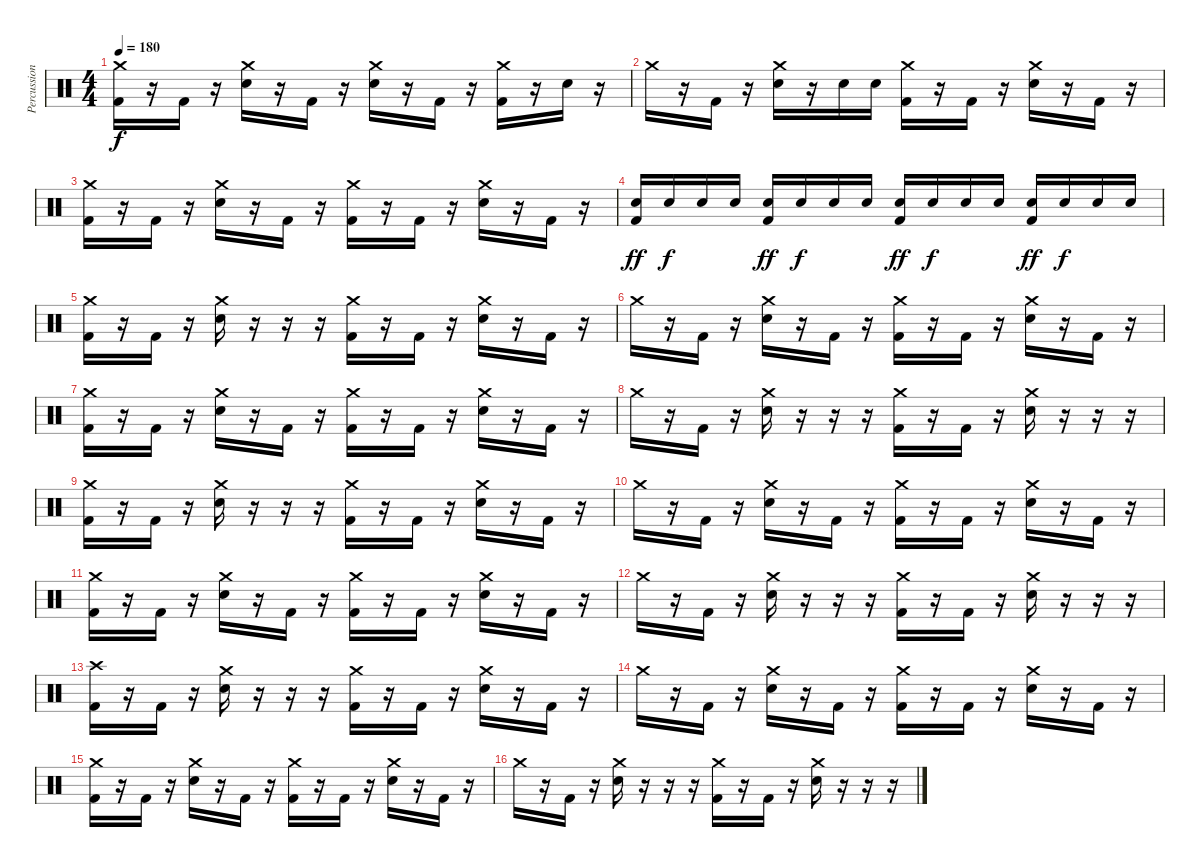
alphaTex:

\track ("Percussion" "Percussion") {instrument percussion}
\staff {score}
\articulation defaults
\ts (4 4)
\tempo 180
\clef neutral
\ks c
("Crash medium (hit)" "Kick (hit) 2").16{dy f} r.16 "Kick (hit) 2".16 r.16 ("Crash medium (hit)" "Snare (hit) 2").16 r.16 "Kick (hit) 2".16 r.16 ("Crash medium (hit)" "Snare (hit) 2").16 r.16 "Kick (hit) 2".16 r.16 ("Crash medium (hit)" "Kick (hit) 2").16 r.16 "Snare (hit) 2".16 r.16 |
"Crash medium (hit)".16 r.16 "Kick (hit) 2".16 r.16 ("Crash medium (hit)" "Snare (hit) 2").16 r.16 "Snare (hit) 2".16 "Snare (hit) 2".16 ("Crash medium (hit)" "Kick (hit) 2").16 r.16 "Kick (hit) 2".16 r.16 ("Crash medium (hit)" "Snare (hit) 2").16 r.16 "Kick (hit) 2".16 r.16 |
("Crash medium (hit)" "Kick (hit) 2").16 r.16 "Kick (hit) 2".16 r.16 ("Crash medium (hit)" "Snare (hit) 2").16 r.16 "Kick (hit) 2".16 r.16 ("Crash medium (hit)" "Kick (hit) 2").16 r.16 "Kick (hit) 2".16 r.16 ("Crash medium (hit)" "Snare (hit) 2").16 r.16 "Kick (hit) 2".16 r.16 |
("Snare (hit) 2" "Kick (hit) 2").16{dy ff} "Snare (hit) 2".16{dy f} "Snare (hit) 2".16 "Snare (hit) 2".16 ("Snare (hit) 2" "Kick (hit) 2").16{dy ff} "Snare (hit) 2".16{dy f} "Snare (hit) 2".16 "Snare (hit) 2".16 ("Snare (hit) 2" "Kick (hit) 2").16{dy ff} "Snare (hit) 2".16{dy f} "Snare (hit) 2".16 "Snare (hit) 2".16 ("Snare (hit) 2" "Kick (hit) 2").16{dy ff} "Snare (hit) 2".16{dy f} "Snare (hit) 2".16 "Snare (hit) 2".16 |
("Crash medium (hit)" "Kick (hit) 2").16 r.16 "Kick (hit) 2".16 r.16 ("Crash medium (hit)" "Snare (hit) 2").16 r.16 r.16 r.16 ("Crash medium (hit)" "Kick (hit) 2").16 r.16 "Kick (hit) 2".16 r.16 ("Crash medium (hit)" "Snare (hit) 2").16 r.16 "Kick (hit) 2".16 r.16 |
"Crash medium (hit)".16 r.16 "Kick (hit) 2".16 r.16 ("Crash medium (hit)" "Snare (hit) 2").16 r.16 "Kick (hit) 2".16 r.16 ("Crash medium (hit)" "Kick (hit) 2").16 r.16 "Kick (hit) 2".16 r.16 ("Crash medium (hit)" "Snare (hit) 2").16 r.16 "Kick (hit) 2".16 r.16 |
("Crash medium (hit)" "Kick (hit) 2").16 r.16 "Kick (hit) 2".16 r.16 ("Crash medium (hit)" "Snare (hit) 2").16 r.16 "Kick (hit) 2".16 r.16 ("Crash medium (hit)" "Kick (hit) 2").16 r.16 "Kick (hit) 2".16 r.16 ("Crash medium (hit)" "Snare (hit) 2").16 r.16 "Kick (hit) 2".16 r.16 |
"Crash medium (hit)".16 r.16 "Kick (hit) 2".16 r.16 ("Crash medium (hit)" "Snare (hit) 2").16 r.16 r.16 r.16 ("Crash medium (hit)" "Kick (hit) 2").16 r.16 "Kick (hit) 2".16 r.16 ("Crash medium (hit)" "Snare (hit) 2").16 r.16 r.16 r.16 |
("Crash medium (hit)" "Kick (hit) 2").16 r.16 "Kick (hit) 2".16 r.16 ("Crash medium (hit)" "Snare (hit) 2").16 r.16 r.16 r.16 ("Crash medium (hit)" "Kick (hit) 2").16 r.16 "Kick (hit) 2".16 r.16 ("Crash medium (hit)" "Snare (hit) 2").16 r.16 "Kick (hit) 2".16 r.16 |
"Crash medium (hit)".16 r.16 "Kick (hit) 2".16 r.16 ("Crash medium (hit)" "Snare (hit) 2").16 r.16 "Kick (hit) 2".16 r.16 ("Crash medium (hit)" "Kick (hit) 2").16 r.16 "Kick (hit) 2".16 r.16 ("Crash medium (hit)" "Snare (hit) 2").16 r.16 "Kick (hit) 2".16 r.16 |
("Crash medium (hit)" "Kick (hit) 2").16 r.16 "Kick (hit) 2".16 r.16 ("Crash medium (hit)" "Snare (hit) 2").16 r.16 "Kick (hit) 2".16 r.16 ("Crash medium (hit)" "Kick (hit) 2").16 r.16 "Kick (hit) 2".16 r.16 ("Crash medium (hit)" "Snare (hit) 2").16 r.16 "Kick (hit) 2".16 r.16 |
"Crash medium (hit)".16 r.16 "Kick (hit) 2".16 r.16 ("Crash medium (hit)" "Snare (hit) 2").16 r.16 r.16 r.16 ("Crash medium (hit)" "Kick (hit) 2").16 r.16 "Kick (hit) 2".16 r.16 ("Crash medium (hit)" "Snare (hit) 2").16 r.16 r.16 r.16 |
("Crash high (hit)" "Kick (hit) 2").16 r.16 "Kick (hit) 2".16 r.16 ("Crash medium (hit)" "Snare (hit) 2").16 r.16 r.16 r.16 ("Crash medium (hit)" "Kick (hit) 2").16 r.16 "Kick (hit) 2".16 r.16 ("Crash medium (hit)" "Snare (hit) 2").16 r.16 "Kick (hit) 2".16 r.16 |
"Crash medium (hit)".16 r.16 "Kick (hit) 2".16 r.16 ("Crash medium (hit)" "Snare (hit) 2").16 r.16 "Kick (hit) 2".16 r.16 ("Crash medium (hit)" "Kick (hit) 2").16 r.16 "Kick (hit) 2".16 r.16 ("Crash medium (hit)" "Snare (hit) 2").16 r.16 "Kick (hit) 2".16 r.16 |
("Crash medium (hit)" "Kick (hit) 2").16 r.16 "Kick (hit) 2".16 r.16 ("Crash medium (hit)" "Snare (hit) 2").16 r.16 "Kick (hit) 2".16 r.16 ("Crash medium (hit)" "Kick (hit) 2").16 r.16 "Kick (hit) 2".16 r.16 ("Crash medium (hit)" "Snare (hit) 2").16 r.16 "Kick (hit) 2".16 r.16 |
"Crash medium (hit)".16 r.16 "Kick (hit) 2".16 r.16 ("Crash medium (hit)" "Snare (hit) 2").16 r.16 r.16 r.16 ("Crash medium (hit)" "Kick (hit) 2").16 r.16 "Kick (hit) 2".16 r.16 ("Crash medium (hit)" "Snare (hit) 2").16 r.16 r.16 r.16
